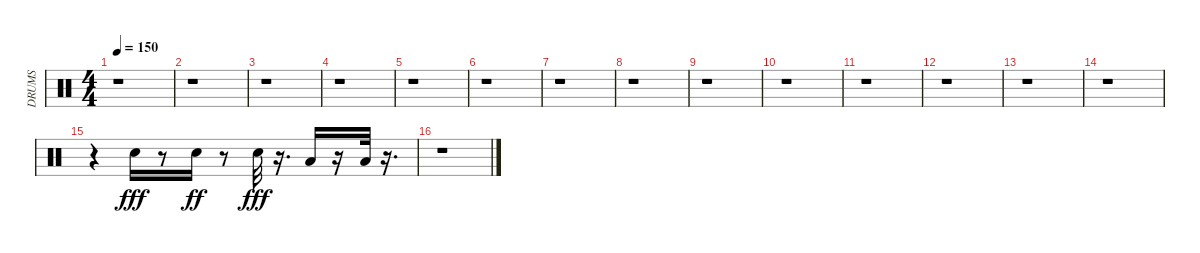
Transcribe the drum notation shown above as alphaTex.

\track ("DRUMS" "DRUMS") {instrument percussion}
\staff {score}
\articulation defaults
\ts (4 4)
\tempo 150
\clef neutral
\ks c
r.1{dy fff} |
r.1 |
r.1 |
r.1 |
r.1 |
r.1 |
r.1 |
r.1 |
r.1 |
r.1 |
r.1 |
r.1 |
r.1 |
r.1 |
r.4 "Electric Snare (hit)".16 r.8 "Electric Snare (hit)".16{dy ff} r.8 "Electric Snare (hit)".32{dy fff} r.16{d} "Low Tom (hit)".16 r.16 "Low Floor Tom (hit)".32 r.16{d} |
r.1
